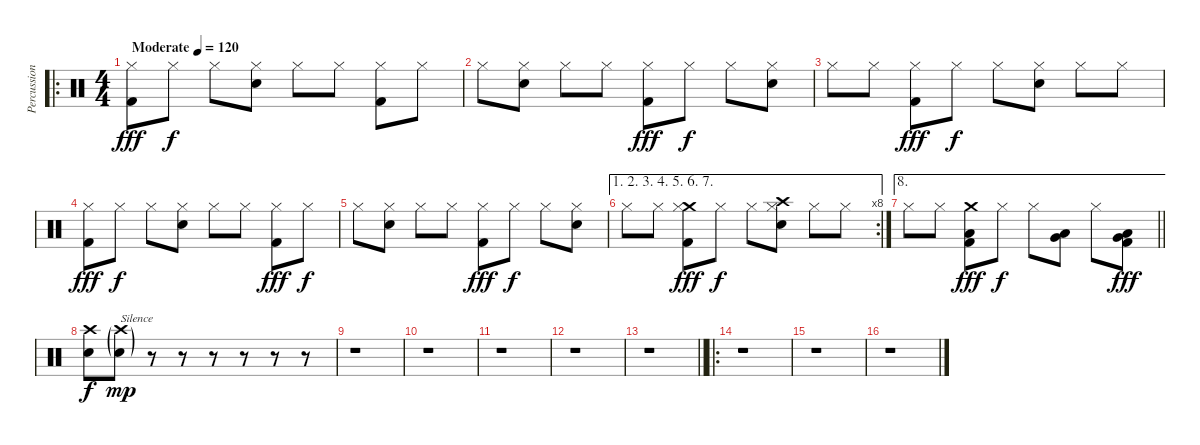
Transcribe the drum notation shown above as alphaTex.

\track ("Percussion" "Percussion") {instrument percussion}
\staff {score}
\articulation defaults
\ro
\ts (4 4)
\tempo (120 "Moderate")
\clef neutral
\ks c
("Hi-Hat (closed)" "Kick (hit) 2").8{dy fff} "Hi-Hat (closed)".8{dy f} "Hi-Hat (closed)".8 ("Snare (hit) 2" "Hi-Hat (closed)").8 "Hi-Hat (closed)".8 "Hi-Hat (closed)".8 ("Hi-Hat (closed)" "Kick (hit) 2").8 "Hi-Hat (closed)".8 |
"Hi-Hat (closed)".8 ("Snare (hit) 2" "Hi-Hat (closed)").8 "Hi-Hat (closed)".8 "Hi-Hat (closed)".8 ("Hi-Hat (closed)" "Kick (hit) 2").8{dy fff} "Hi-Hat (closed)".8{dy f} "Hi-Hat (closed)".8 ("Snare (hit) 2" "Hi-Hat (closed)").8 |
"Hi-Hat (closed)".8 "Hi-Hat (closed)".8 ("Hi-Hat (closed)" "Kick (hit) 2").8{dy fff} "Hi-Hat (closed)".8{dy f} "Hi-Hat (closed)".8 ("Snare (hit) 2" "Hi-Hat (closed)").8 "Hi-Hat (closed)".8 "Hi-Hat (closed)".8 |
("Hi-Hat (closed)" "Kick (hit) 2").8{dy fff} "Hi-Hat (closed)".8{dy f} "Hi-Hat (closed)".8 ("Snare (hit) 2" "Hi-Hat (closed)").8 "Hi-Hat (closed)".8 "Hi-Hat (closed)".8 ("Hi-Hat (closed)" "Kick (hit) 2").8{dy fff} "Hi-Hat (closed)".8{dy f} |
"Hi-Hat (closed)".8 ("Snare (hit) 2" "Hi-Hat (closed)").8 "Hi-Hat (closed)".8 "Hi-Hat (closed)".8 ("Hi-Hat (closed)" "Kick (hit) 2").8{dy fff} "Hi-Hat (closed)".8{dy f} "Hi-Hat (closed)".8 ("Snare (hit) 2" "Hi-Hat (closed)").8 |
\ae (1 2 3 4 5 6 7)
\rc 8 "Hi-Hat (closed)".8 "Hi-Hat (closed)".8
("Crash medium (hit)" "Hi-Hat (closed)" "Kick (hit) 2").8{dy fff} "Hi-Hat (closed)".8{dy f} "Hi-Hat (closed)".8 ("Crash high (hit)" "Snare (hit) 2" "Hi-Hat (closed)").8 "Hi-Hat (closed)".8 "Hi-Hat (closed)".8 |
\ae 8
\barLineRight lightlight "Hi-Hat (closed)".8 "Hi-Hat (closed)".8
("Crash medium (hit)" "Low Tom (hit)" "Kick (hit) 2").8{dy fff} "Hi-Hat (closed)".8{dy f} "Hi-Hat (closed)".8 ("Low Tom (hit)" "Very Low Tom (hit)").8 "Hi-Hat (closed)".8 ("Very Low Tom (hit)" "Low Floor Tom (hit)" "Kick (hit) 2").8{dy fff} |
("Crash high (hit)" "Snare (hit) 2").8{dy f} ("Crash high (hit)"{g} "Snare (hit) 2"{g}).8{txt "Silence" dy mp volume 0} r.8 r.8 r.8 r.8 r.8 r.8 |
r.1 |
r.1 |
r.1 |
r.1 |
\barLineRight lightlight
r.1 |
\ro
r.1 |
r.1 |
r.1
